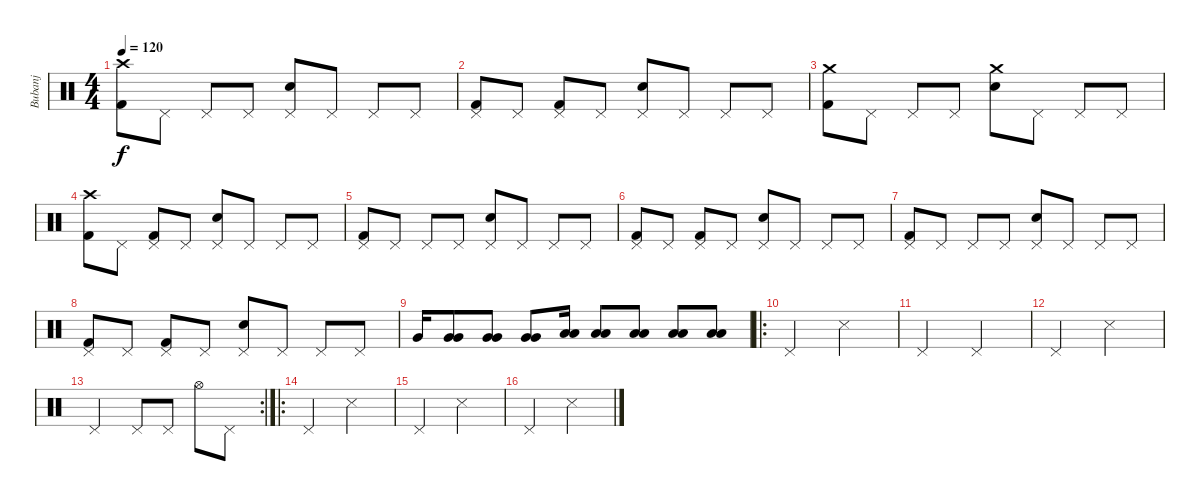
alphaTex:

\track ("Bubanj" "Bubanj") {instrument percussion}
\staff {score}
\articulation defaults
\ts (4 4)
\tempo 120
\clef neutral
\ks c
("Crash high (hit)" "Kick (hit) 2").8{dy f} "Pedal Hi-Hat (hit)".8 "Pedal Hi-Hat (hit)".8 "Pedal Hi-Hat (hit)".8 ("Pedal Hi-Hat (hit)" "Snare (hit) 2").8 "Pedal Hi-Hat (hit)".8 "Pedal Hi-Hat (hit)".8 "Pedal Hi-Hat (hit)".8 |
("Pedal Hi-Hat (hit)" "Kick (hit) 2").8 "Pedal Hi-Hat (hit)".8 ("Pedal Hi-Hat (hit)" "Kick (hit) 2").8 "Pedal Hi-Hat (hit)".8 ("Pedal Hi-Hat (hit)" "Snare (hit) 2").8 "Pedal Hi-Hat (hit)".8 "Pedal Hi-Hat (hit)".8 "Pedal Hi-Hat (hit)".8 |
("Crash medium (hit)" "Kick (hit) 2").8 "Pedal Hi-Hat (hit)".8 "Pedal Hi-Hat (hit)".8 "Pedal Hi-Hat (hit)".8 ("Crash medium (hit)" "Snare (hit) 2").8 "Pedal Hi-Hat (hit)".8 "Pedal Hi-Hat (hit)".8 "Pedal Hi-Hat (hit)".8 |
("Crash high (hit)" "Kick (hit) 2").8 "Pedal Hi-Hat (hit)".8 ("Pedal Hi-Hat (hit)" "Kick (hit) 2").8 "Pedal Hi-Hat (hit)".8 ("Pedal Hi-Hat (hit)" "Snare (hit) 2").8 "Pedal Hi-Hat (hit)".8 "Pedal Hi-Hat (hit)".8 "Pedal Hi-Hat (hit)".8 |
("Pedal Hi-Hat (hit)" "Kick (hit) 2").8 "Pedal Hi-Hat (hit)".8 "Pedal Hi-Hat (hit)".8 "Pedal Hi-Hat (hit)".8 ("Pedal Hi-Hat (hit)" "Snare (hit) 2").8 "Pedal Hi-Hat (hit)".8 "Pedal Hi-Hat (hit)".8 "Pedal Hi-Hat (hit)".8 |
("Pedal Hi-Hat (hit)" "Kick (hit) 2").8 "Pedal Hi-Hat (hit)".8 ("Pedal Hi-Hat (hit)" "Kick (hit) 2").8 "Pedal Hi-Hat (hit)".8 ("Pedal Hi-Hat (hit)" "Snare (hit) 2").8 "Pedal Hi-Hat (hit)".8 "Pedal Hi-Hat (hit)".8 "Pedal Hi-Hat (hit)".8 |
("Pedal Hi-Hat (hit)" "Kick (hit) 2").8 "Pedal Hi-Hat (hit)".8 "Pedal Hi-Hat (hit)".8 "Pedal Hi-Hat (hit)".8 ("Pedal Hi-Hat (hit)" "Snare (hit) 2").8 "Pedal Hi-Hat (hit)".8 "Pedal Hi-Hat (hit)".8 "Pedal Hi-Hat (hit)".8 |
("Pedal Hi-Hat (hit)" "Kick (hit) 2").8 "Pedal Hi-Hat (hit)".8 ("Pedal Hi-Hat (hit)" "Kick (hit) 2").8 "Pedal Hi-Hat (hit)".8 ("Pedal Hi-Hat (hit)" "Snare (hit) 2").8 "Pedal Hi-Hat (hit)".8 "Pedal Hi-Hat (hit)".8 "Pedal Hi-Hat (hit)".8 |
"Very Low Tom (hit)".16 ("Very Low Tom (hit)" "Very Low Tom (hit)").8 ("Very Low Tom (hit)" "Very Low Tom (hit)").8 ("Very Low Tom (hit)" "Very Low Tom (hit)").8 ("Low Floor Tom (hit)" "Low Floor Tom (hit)").16 ("Low Floor Tom (hit)" "Low Floor Tom (hit)").8 ("Low Floor Tom (hit)" "Low Floor Tom (hit)").8 ("Low Floor Tom (hit)" "Low Floor Tom (hit)").8 ("Low Floor Tom (hit)" "Low Floor Tom (hit)").8 |
\ro "Pedal Hi-Hat (hit)".2 "Snare (side stick) 3".2
|
"Pedal Hi-Hat (hit)".2 "Pedal Hi-Hat (hit)".2 |
"Pedal Hi-Hat (hit)".2 "Snare (side stick) 3".2 |
\rc 2 "Pedal Hi-Hat (hit)".2 "Pedal Hi-Hat (hit)".8 "Pedal Hi-Hat (hit)".8 "Hi-Hat (open)".8 "Pedal Hi-Hat (hit)".8
|
\ro "Pedal Hi-Hat (hit)".2 "Snare (side stick) 3".2
|
"Pedal Hi-Hat (hit)".2 "Snare (side stick) 3".2 |
"Pedal Hi-Hat (hit)".2 "Snare (side stick) 3".2
